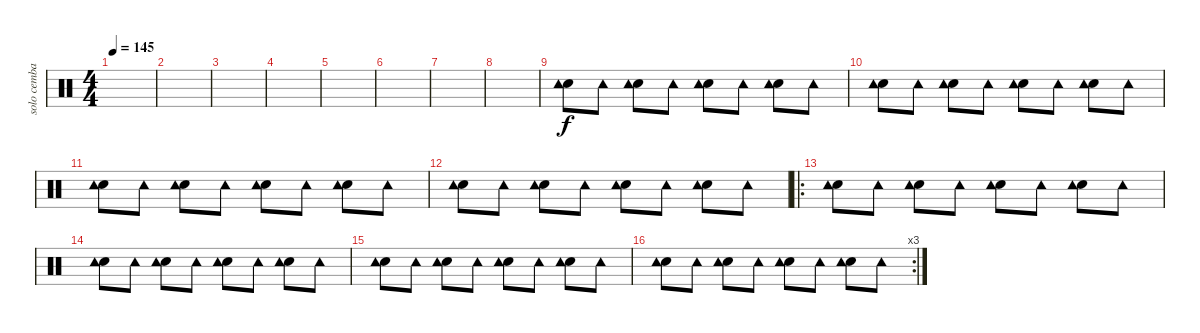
\track ("solo cembalo" "solo cemba") {instrument percussion}
\staff {score}
\articulation defaults
\ts (4 4)
\tempo 145
\clef neutral
\ks c
|
|
|
|
|
|
|
|
("Hand Clap (hit)" "Tambourine (hit)").8 "Tambourine (hit)".8 ("Hand Clap (hit)" "Tambourine (hit)").8 "Tambourine (hit)".8 ("Hand Clap (hit)" "Tambourine (hit)").8 "Tambourine (hit)".8 ("Hand Clap (hit)" "Tambourine (hit)").8 "Tambourine (hit)".8 |
("Hand Clap (hit)" "Tambourine (hit)").8 "Tambourine (hit)".8 ("Hand Clap (hit)" "Tambourine (hit)").8 "Tambourine (hit)".8 ("Hand Clap (hit)" "Tambourine (hit)").8 "Tambourine (hit)".8 ("Hand Clap (hit)" "Tambourine (hit)").8 "Tambourine (hit)".8 |
("Hand Clap (hit)" "Tambourine (hit)").8 "Tambourine (hit)".8 ("Hand Clap (hit)" "Tambourine (hit)").8 "Tambourine (hit)".8 ("Hand Clap (hit)" "Tambourine (hit)").8 "Tambourine (hit)".8 ("Hand Clap (hit)" "Tambourine (hit)").8 "Tambourine (hit)".8 |
("Hand Clap (hit)" "Tambourine (hit)").8 "Tambourine (hit)".8 ("Hand Clap (hit)" "Tambourine (hit)").8 "Tambourine (hit)".8 ("Hand Clap (hit)" "Tambourine (hit)").8 "Tambourine (hit)".8 ("Hand Clap (hit)" "Tambourine (hit)").8 "Tambourine (hit)".8 |
\ro
("Hand Clap (hit)" "Tambourine (hit)").8 "Tambourine (hit)".8 ("Hand Clap (hit)" "Tambourine (hit)").8 "Tambourine (hit)".8 ("Hand Clap (hit)" "Tambourine (hit)").8 "Tambourine (hit)".8 ("Hand Clap (hit)" "Tambourine (hit)").8 "Tambourine (hit)".8 |
("Hand Clap (hit)" "Tambourine (hit)").8 "Tambourine (hit)".8 ("Hand Clap (hit)" "Tambourine (hit)").8 "Tambourine (hit)".8 ("Hand Clap (hit)" "Tambourine (hit)").8 "Tambourine (hit)".8 ("Hand Clap (hit)" "Tambourine (hit)").8 "Tambourine (hit)".8 |
("Hand Clap (hit)" "Tambourine (hit)").8 "Tambourine (hit)".8 ("Hand Clap (hit)" "Tambourine (hit)").8 "Tambourine (hit)".8 ("Hand Clap (hit)" "Tambourine (hit)").8 "Tambourine (hit)".8 ("Hand Clap (hit)" "Tambourine (hit)").8 "Tambourine (hit)".8 |
\rc 3
("Hand Clap (hit)" "Tambourine (hit)").8 "Tambourine (hit)".8 ("Hand Clap (hit)" "Tambourine (hit)").8 "Tambourine (hit)".8 ("Hand Clap (hit)" "Tambourine (hit)").8 "Tambourine (hit)".8 ("Hand Clap (hit)" "Tambourine (hit)").8 "Tambourine (hit)".8
